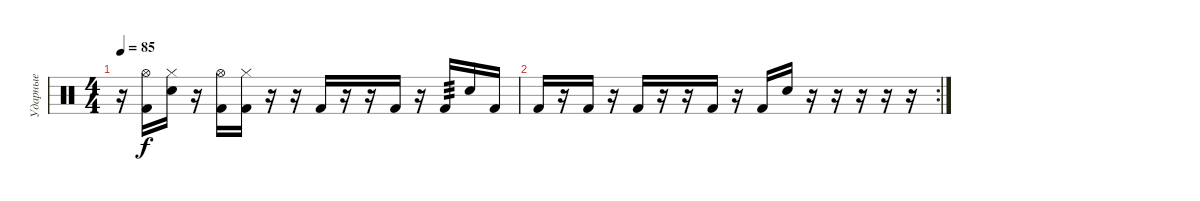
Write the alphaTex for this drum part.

\track ("Ударные" "Ударные") {instrument percussion}
\staff {score}
\articulation defaults
\ts (4 4)
\tempo 85
\clef neutral
\ks c
r.16{dy f} ("Hi-Hat (open)" "Kick (hit) 2").16 ("Hi-Hat (closed)" "Electric Snare (hit)").16 r.16 ("Hi-Hat (open)" "Kick (hit) 2").16 ("Hi-Hat (closed)" "Kick (hit) 2").16 r.16 r.16 "Kick (hit) 2".16 r.16 r.16 "Kick (hit) 2".16 r.16 "Kick (hit) 2".16{tp 3} "Electric Snare (hit)".16 "Kick (hit) 2".16 |
\rc 2 "Kick (hit) 2".16
r.16 "Kick (hit) 2".16 r.16 "Kick (hit) 2".16 r.16 r.16 "Kick (hit) 2".16 r.16 "Kick (hit) 2".16 "Electric Snare (hit)".16 r.16 r.16 r.16 r.16 r.16
